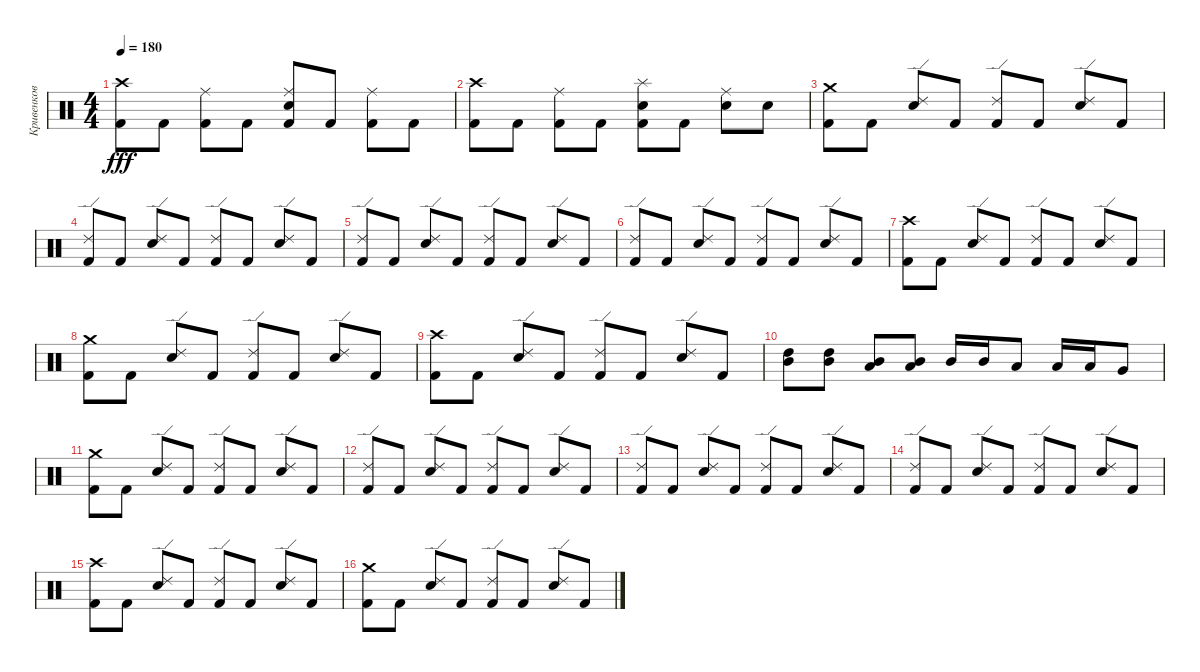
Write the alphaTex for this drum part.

\track ("Кривенков" "Кривенков") {instrument percussion}
\staff {score}
\articulation defaults
\ts (4 4)
\tempo 180
\clef neutral
\ks c
("Kick (hit) 2" "Crash high (hit)").8{dy fff} "Kick (hit) 2".8 ("Ride (middle)" "Kick (hit) 2").8 "Kick (hit) 2".8 ("Kick (hit) 2" "Snare (hit) 2" "Ride (middle)").8 "Kick (hit) 2".8 ("Ride (middle)" "Kick (hit) 2").8 "Kick (hit) 2".8 |
("Crash high (hit)" "Kick (hit) 2").8 "Kick (hit) 2".8 ("Kick (hit) 2" "Ride (middle)").8 "Kick (hit) 2".8 ("Kick (hit) 2" "Splash (hit)" "Snare (hit) 2").8 "Kick (hit) 2".8 ("Snare (hit) 2" "Ride (middle)").8 "Snare (hit) 2".8 |
("Crash medium (hit)" "Kick (hit) 2").8 "Kick (hit) 2".8 ("Ride (edge) 2" "Snare (hit) 2").8 "Kick (hit) 2".8 ("Ride (edge) 2" "Kick (hit) 2").8 "Kick (hit) 2".8 ("Ride (edge) 2" "Snare (hit) 2").8 "Kick (hit) 2".8 |
("Kick (hit) 2" "Ride (edge) 2").8 "Kick (hit) 2".8 ("Ride (edge) 2" "Snare (hit) 2").8 "Kick (hit) 2".8 ("Kick (hit) 2" "Ride (edge) 2").8 "Kick (hit) 2".8 ("Ride (edge) 2" "Snare (hit) 2").8 "Kick (hit) 2".8 |
("Ride (edge) 2" "Kick (hit) 2").8 "Kick (hit) 2".8 ("Snare (hit) 2" "Ride (edge) 2").8 "Kick (hit) 2".8 ("Kick (hit) 2" "Ride (edge) 2").8 "Kick (hit) 2".8 ("Snare (hit) 2" "Ride (edge) 2").8 "Kick (hit) 2".8 |
("Kick (hit) 2" "Ride (edge) 2").8 "Kick (hit) 2".8 ("Ride (edge) 2" "Snare (hit) 2").8 "Kick (hit) 2".8 ("Kick (hit) 2" "Ride (edge) 2").8 "Kick (hit) 2".8 ("Ride (edge) 2" "Snare (hit) 2").8 "Kick (hit) 2".8 |
("Kick (hit) 2" "Crash high (hit)").8 "Kick (hit) 2".8 ("Snare (hit) 2" "Ride (edge) 2").8 "Kick (hit) 2".8 ("Ride (edge) 2" "Kick (hit) 2").8 "Kick (hit) 2".8 ("Ride (edge) 2" "Snare (hit) 2").8 "Kick (hit) 2".8 |
("Crash medium (hit)" "Kick (hit) 2").8 "Kick (hit) 2".8 ("Ride (edge) 2" "Snare (hit) 2").8 "Kick (hit) 2".8 ("Kick (hit) 2" "Ride (edge) 2").8 "Kick (hit) 2".8 ("Snare (hit) 2" "Ride (edge) 2").8 "Kick (hit) 2".8 |
("Crash high (hit)" "Kick (hit) 2").8 "Kick (hit) 2".8 ("Ride (edge) 2" "Snare (hit) 2").8 "Kick (hit) 2".8 ("Ride (edge) 2" "Kick (hit) 2").8 "Kick (hit) 2".8 ("Snare (hit) 2" "Ride (edge) 2").8 "Kick (hit) 2".8 |
("Mid Tom (hit)" "High Tom (hit)").8 ("High Tom (hit)" "Mid Tom (hit)").8 ("Mid Tom (hit)" "Low Tom (hit)").8 ("Low Tom (hit)" "Mid Tom (hit)").8 "Mid Tom (hit)".16 "Mid Tom (hit)".16 "Low Tom (hit)".8 "Low Tom (hit)".16 "Low Tom (hit)".16 "Very Low Tom (hit)".8 |
("Kick (hit) 2" "Crash medium (hit)").8 "Kick (hit) 2".8 ("Snare (hit) 2" "Ride (edge) 2").8 "Kick (hit) 2".8 ("Ride (edge) 2" "Kick (hit) 2").8 "Kick (hit) 2".8 ("Snare (hit) 2" "Ride (edge) 2").8 "Kick (hit) 2".8 |
("Kick (hit) 2" "Ride (edge) 2").8 "Kick (hit) 2".8 ("Ride (edge) 2" "Snare (hit) 2").8 "Kick (hit) 2".8 ("Kick (hit) 2" "Ride (edge) 2").8 "Kick (hit) 2".8 ("Snare (hit) 2" "Ride (edge) 2").8 "Kick (hit) 2".8 |
("Kick (hit) 2" "Ride (edge) 2").8 "Kick (hit) 2".8 ("Ride (edge) 2" "Snare (hit) 2").8 "Kick (hit) 2".8 ("Ride (edge) 2" "Kick (hit) 2").8 "Kick (hit) 2".8 ("Ride (edge) 2" "Snare (hit) 2").8 "Kick (hit) 2".8 |
("Ride (edge) 2" "Kick (hit) 2").8 "Kick (hit) 2".8 ("Ride (edge) 2" "Snare (hit) 2").8 "Kick (hit) 2".8 ("Kick (hit) 2" "Ride (edge) 2").8 "Kick (hit) 2".8 ("Snare (hit) 2" "Ride (edge) 2").8 "Kick (hit) 2".8 |
("Kick (hit) 2" "Crash high (hit)").8 "Kick (hit) 2".8 ("Ride (edge) 2" "Snare (hit) 2").8 "Kick (hit) 2".8 ("Ride (edge) 2" "Kick (hit) 2").8 "Kick (hit) 2".8 ("Snare (hit) 2" "Ride (edge) 2").8 "Kick (hit) 2".8 |
("Crash medium (hit)" "Kick (hit) 2").8 "Kick (hit) 2".8 ("Ride (edge) 2" "Snare (hit) 2").8 "Kick (hit) 2".8 ("Kick (hit) 2" "Ride (edge) 2").8 "Kick (hit) 2".8 ("Ride (edge) 2" "Snare (hit) 2").8 "Kick (hit) 2".8
